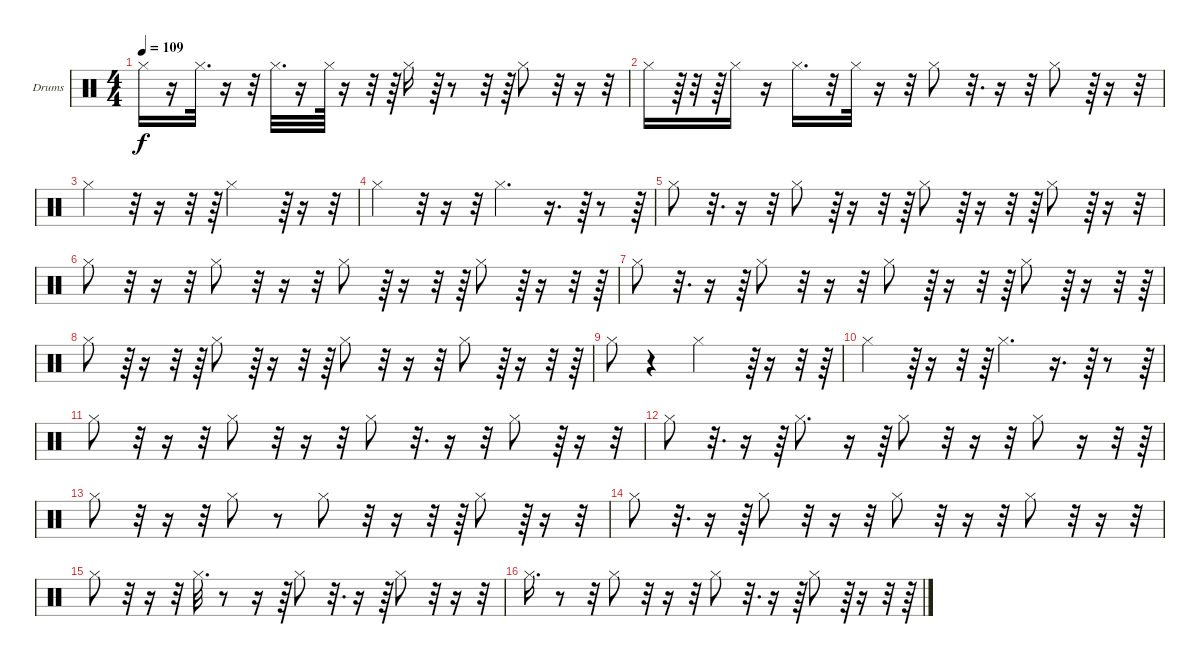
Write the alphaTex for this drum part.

\bracketExtendMode groupsimilarinstruments
\firstSystemTrackNameOrientation horizontal
\otherSystemsTrackNameOrientation horizontal
\track ("Drumkit" "Drums") {instrument percussion}
\staff {score}
\articulation defaults
\ts (4 4)
\tempo 109
\clef neutral
\ks c "Hi-Hat (closed)".16{dy f}
r.16 "Hi-Hat (closed)".32{d} r.16 r.32 "Hi-Hat (closed)".32{d} r.16 "Hi-Hat (closed)".64 r.16 r.32 r.64 "Hi-Hat (closed)".16 r.64 r.8 r.32 r.64 "Hi-Hat (closed)".8 r.32 r.16 r.32 |
"Hi-Hat (closed)".16 r.64 r.32 r.64 "Hi-Hat (closed)".16 r.16 "Hi-Hat (closed)".16{d} r.32 "Hi-Hat (closed)".32 r.16 r.32 "Hi-Hat (closed)".8 r.32{d} r.16 r.32 "Hi-Hat (closed)".8 r.64 r.16 r.32 |
"Hi-Hat (closed)".4 r.32 r.16 r.32 r.64 "Hi-Hat (closed)".2 r.64 r.16 r.32 |
"Hi-Hat (closed)".4 r.32 r.16 r.32 "Hi-Hat (closed)".4{d} r.16{d} r.64 r.8 r.64 |
"Hi-Hat (closed)".8 r.32{d} r.16 r.32 "Hi-Hat (closed)".8 r.64 r.16 r.32 r.64 "Hi-Hat (closed)".8 r.64 r.16 r.32 r.64 "Hi-Hat (closed)".8 r.64 r.16 r.32 |
"Hi-Hat (closed)".8 r.32 r.16 r.32 "Hi-Hat (closed)".8 r.32 r.16 r.32 "Hi-Hat (closed)".8 r.64 r.16 r.32 r.64 "Hi-Hat (closed)".8 r.64 r.16 r.32 r.64 |
"Hi-Hat (closed)".8 r.32{d} r.16 r.64 "Hi-Hat (closed)".8 r.32 r.16 r.32 "Hi-Hat (closed)".8 r.64 r.16 r.32 r.64 "Hi-Hat (closed)".8 r.64 r.16 r.32 r.64 |
"Hi-Hat (closed)".8 r.64 r.16 r.32 r.64 "Hi-Hat (closed)".8 r.64 r.16 r.32 r.64 "Hi-Hat (closed)".8 r.32 r.16 r.32 "Hi-Hat (closed)".8 r.64 r.16 r.32 r.64 |
"Hi-Hat (closed)".8 r.4 "Hi-Hat (closed)".2 r.64 r.16 r.32 r.64 |
"Hi-Hat (closed)".4 r.64 r.16 r.32 r.64 "Hi-Hat (closed)".4{d} r.16{d} r.64 r.8 r.64 |
"Hi-Hat (closed)".8 r.32 r.16 r.32 "Hi-Hat (closed)".8 r.32 r.16 r.32 "Hi-Hat (closed)".8 r.32{d} r.16 r.32 "Hi-Hat (closed)".8 r.64 r.16 r.32 |
"Hi-Hat (closed)".8 r.32{d} r.16 r.64 "Hi-Hat (closed)".8{d} r.16 r.64 "Hi-Hat (closed)".8 r.32 r.16 r.32 "Hi-Hat (closed)".8 r.16 r.32 r.64 |
"Hi-Hat (closed)".8 r.32 r.16 r.32 "Hi-Hat (closed)".8 r.8 "Hi-Hat (closed)".8 r.32 r.16 r.32 r.64 "Hi-Hat (closed)".8 r.64 r.16 r.32 |
"Hi-Hat (closed)".8 r.32{d} r.16 r.64 "Hi-Hat (closed)".8 r.32 r.16 r.32 "Hi-Hat (closed)".8 r.32 r.16 r.32 "Hi-Hat (closed)".8 r.32 r.16 r.32 |
"Hi-Hat (closed)".8 r.32 r.16 r.32 "Hi-Hat (closed)".32{d} r.8 r.16 r.64 "Hi-Hat (closed)".8 r.32{d} r.16 r.64 "Hi-Hat (closed)".8 r.32 r.16 r.32 |
"Hi-Hat (closed)".16{d} r.8 r.32 "Hi-Hat (closed)".8 r.32 r.16 r.32 "Hi-Hat (closed)".8 r.32{d} r.16 r.64 "Hi-Hat (closed)".8 r.64 r.16 r.32 r.64
